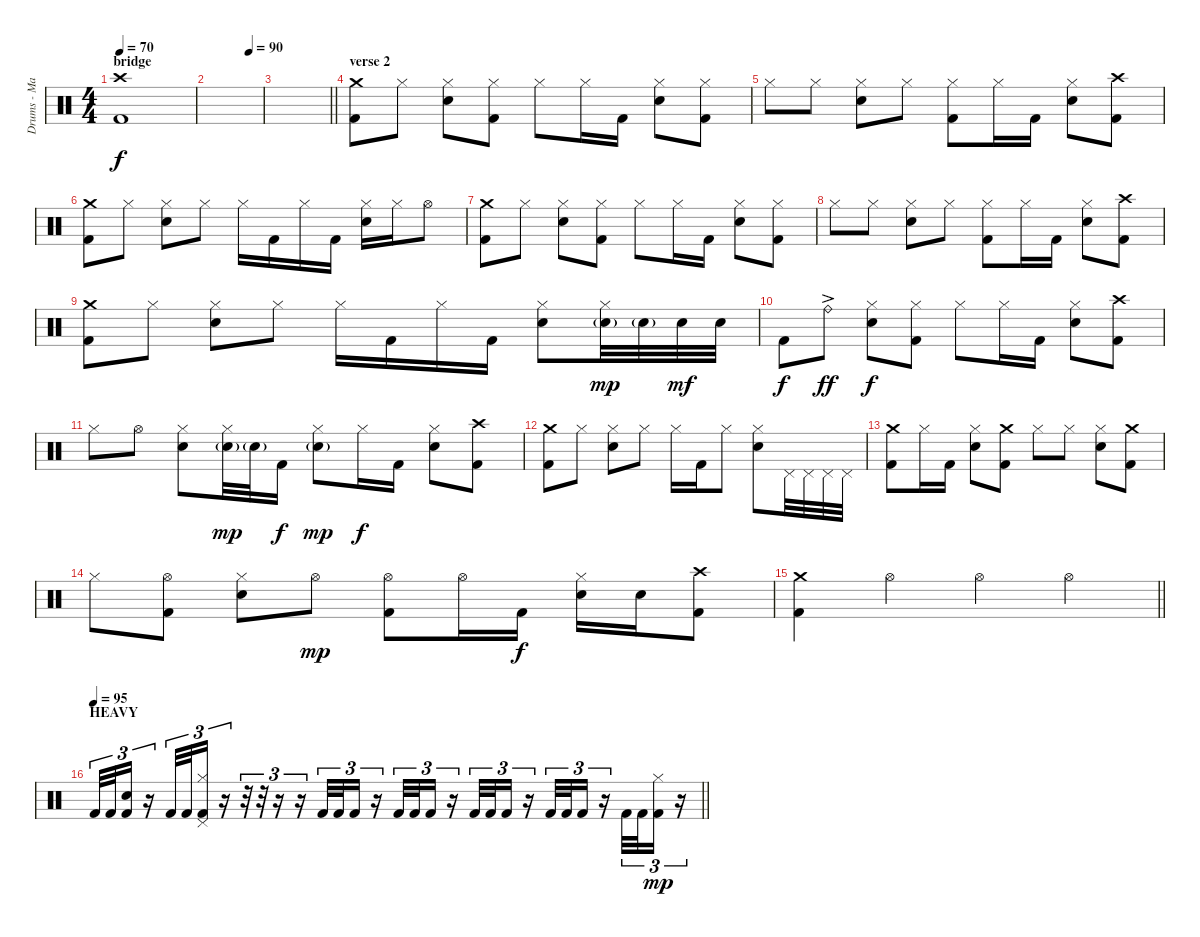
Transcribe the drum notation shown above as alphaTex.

\track ("Drums - Mario Duplantier" "Drums - Ma") {instrument percussion}
\staff {score}
\articulation defaults
\ts (4 4)
\section ("" "bridge")
\tempo 70
\clef neutral
\ks c
("Crash high (hit)" "Kick (hit) 2").1{dy f} |
\tempo (90 0.75)
|
\barLineRight lightlight
|
\section ("" "verse 2")
("Crash medium (hit)" "Kick (hit) 2").8 "Hi-Hat (closed)".8 ("Hi-Hat (closed)" "Electric Snare (hit)").8 ("Hi-Hat (closed)" "Kick (hit) 2").8 "Hi-Hat (closed)".8 "Hi-Hat (closed)".16 "Kick (hit) 2".16 ("Hi-Hat (closed)" "Electric Snare (hit)").8 ("Hi-Hat (closed)" "Kick (hit) 2").8 |
"Hi-Hat (closed)".8 "Hi-Hat (closed)".8 ("Hi-Hat (closed)" "Electric Snare (hit)").8 "Hi-Hat (closed)".8 ("Hi-Hat (closed)" "Kick (hit) 2").8 "Hi-Hat (closed)".16 "Kick (hit) 2".16 ("Hi-Hat (closed)" "Electric Snare (hit)").8 ("Crash high (hit)" "Kick (hit) 2").8 |
("Crash medium (hit)" "Kick (hit) 2").8 "Hi-Hat (closed)".8 ("Hi-Hat (closed)" "Electric Snare (hit)").8 "Hi-Hat (closed)".8 "Hi-Hat (closed)".16 "Kick (hit) 2".16 "Hi-Hat (closed)".16 "Kick (hit) 2".16 ("Hi-Hat (closed)" "Electric Snare (hit)").16 "Hi-Hat (closed)".16 "Hi-Hat (open)".8 |
("Crash medium (hit)" "Kick (hit) 2").8 "Hi-Hat (closed)".8 ("Hi-Hat (closed)" "Electric Snare (hit)").8 ("Hi-Hat (closed)" "Kick (hit) 2").8 "Hi-Hat (closed)".8 "Hi-Hat (closed)".16 "Kick (hit) 2".16 ("Hi-Hat (closed)" "Electric Snare (hit)").8 ("Hi-Hat (closed)" "Kick (hit) 2").8 |
"Hi-Hat (closed)".8 "Hi-Hat (closed)".8 ("Hi-Hat (closed)" "Electric Snare (hit)").8 "Hi-Hat (closed)".8 ("Hi-Hat (closed)" "Kick (hit) 2").8 "Hi-Hat (closed)".16 "Kick (hit) 2".16 ("Hi-Hat (closed)" "Electric Snare (hit)").8 ("Crash high (hit)" "Kick (hit) 2").8 |
("Crash medium (hit)" "Kick (hit) 2").8 "Hi-Hat (closed)".8 ("Hi-Hat (closed)" "Electric Snare (hit)").8 "Hi-Hat (closed)".8 "Hi-Hat (closed)".16 "Kick (hit) 2".16 "Hi-Hat (closed)".16 "Kick (hit) 2".16 ("Hi-Hat (closed)" "Electric Snare (hit)").8 ("Hi-Hat (closed)" "Electric Snare (hit)"{g}).32{dy mp} "Electric Snare (hit)"{g}.32 "Electric Snare (hit)".32{dy mf} "Electric Snare (hit)".32 |
"Kick (hit) 2".8{dy f} "Ride (bell)"{ac}.8{dy ff} ("Hi-Hat (closed)" "Electric Snare (hit)").8{dy f} ("Hi-Hat (closed)" "Kick (hit) 2").8 "Hi-Hat (closed)".8 "Hi-Hat (closed)".16 "Kick (hit) 2".16 ("Hi-Hat (closed)" "Electric Snare (hit)").8 ("Crash high (hit)" "Kick (hit) 2").8 |
"Hi-Hat (closed)".8 "Hi-Hat (open)".8 ("Hi-Hat (closed)" "Electric Snare (hit)").8 ("Hi-Hat (closed)" "Electric Snare (hit)"{g}).32{dy mp} "Electric Snare (hit)"{g}.32 "Kick (hit) 2".16{dy f} ("Hi-Hat (closed)" "Electric Snare (hit)"{g}).8{dy mp} "Hi-Hat (closed)".16{dy f} "Kick (hit) 2".16 ("Hi-Hat (closed)" "Electric Snare (hit)").8 ("Crash high (hit)" "Kick (hit) 2").8 |
("Crash medium (hit)" "Kick (hit) 2").8 "Hi-Hat (closed)".8 ("Hi-Hat (closed)" "Electric Snare (hit)").8 "Hi-Hat (closed)".8 "Hi-Hat (closed)".16 "Kick (hit) 2".16 "Hi-Hat (closed)".8 ("Hi-Hat (closed)" "Electric Snare (hit)").8 "Pedal Hi-Hat (hit)".32 "Pedal Hi-Hat (hit)".32 "Pedal Hi-Hat (hit)".32 "Pedal Hi-Hat (hit)".32 |
("Crash medium (hit)" "Kick (hit) 2").8 "Hi-Hat (closed)".16 "Kick (hit) 2".16 ("Hi-Hat (closed)" "Electric Snare (hit)").8 ("Crash medium (hit)" "Kick (hit) 2").8 "Hi-Hat (closed)".8 "Hi-Hat (closed)".8 ("Hi-Hat (closed)" "Electric Snare (hit)").8 ("Crash medium (hit)" "Kick (hit) 2").8 |
"Hi-Hat (closed)".8 ("Hi-Hat (open)" "Kick (hit) 2").8 ("Hi-Hat (closed)" "Electric Snare (hit)").8 "Hi-Hat (open)".8{dy mp} ("Hi-Hat (open)" "Kick (hit) 2").8 "Hi-Hat (open)".16 "Kick (hit) 2".16{dy f} ("Hi-Hat (closed)" "Electric Snare (hit)").16 "Electric Snare (hit)".16 ("Crash high (hit)" "Kick (hit) 2").8 |
\barLineRight lightlight
("Crash medium (hit)" "Kick (hit) 2").4 "Hi-Hat (open)".4 "Hi-Hat (open)".4 "Hi-Hat (open)".4 |
\section ("" "HEAVY")
\tempo 95
\barLineRight lightlight "Kick (hit) 2".32{tu (3 2)} "Kick (hit) 2".32{tu (3 2)}
("Electric Snare (hit)" "Kick (hit) 2").16{tu (3 2)} r.16{tu (3 2)} "Kick (hit) 2".32{tu (3 2)} "Kick (hit) 2".32{tu (3 2)} ("Pedal Hi-Hat (hit)" "Hi-Hat (closed)" "Kick (hit) 2").16{tu (3 2)} r.16{tu (3 2)} r.32{tu (3 2)} r.32{tu (3 2)} r.16{tu (3 2)} r.16{tu (3 2)} "Kick (hit) 2".32{tu (3 2)} "Kick (hit) 2".32{tu (3 2)} "Kick (hit) 2".16{tu (3 2)} r.16{tu (3 2)} "Kick (hit) 2".32{tu (3 2)} "Kick (hit) 2".32{tu (3 2)} "Kick (hit) 2".16{tu (3 2)} r.16{tu (3 2)} "Kick (hit) 2".32{tu (3 2)} "Kick (hit) 2".32{tu (3 2)} "Kick (hit) 2".16{tu (3 2)} r.16{tu (3 2)} "Kick (hit) 2".32{tu (3 2)} "Kick (hit) 2".32{tu (3 2)} "Kick (hit) 2".16{tu (3 2)} r.16{tu (3 2)} "Kick (hit) 2".32{tu (3 2)} "Kick (hit) 2".32{tu (3 2)} ("Hi-Hat (closed)" "Kick (hit) 2").16{tu (3 2) dy mp} r.16{tu (3 2)}
